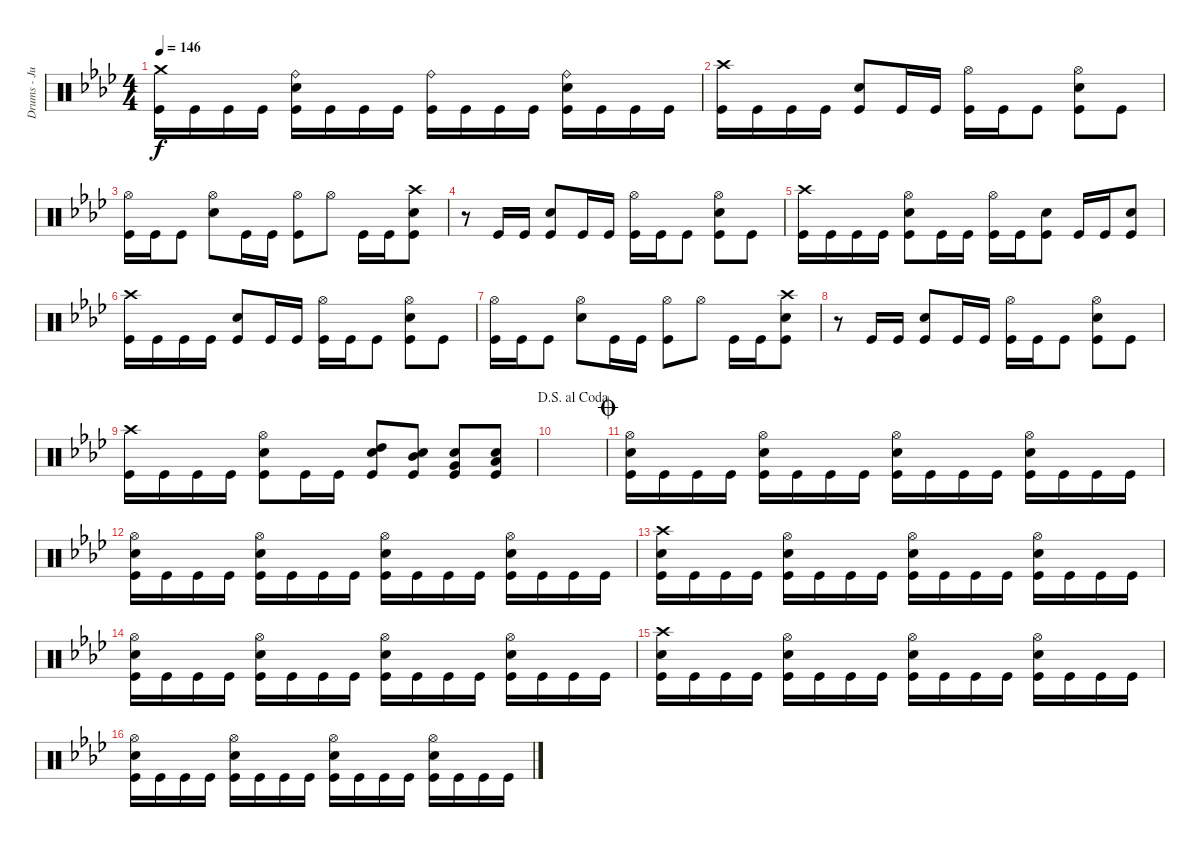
\track ("Drums - Jukka" "Drums - Ju") {instrument percussion}
\staff {score}
\articulation defaults
\ts (4 4)
\tempo 146
\clef neutral
\ks fminor
("Kick (hit)" "Crash medium (hit)").16{dy f} "Kick (hit)".16 "Kick (hit)".16 "Kick (hit)".16 ("Kick (hit)" "Snare (hit) 2" "Ride (bell)").16 "Kick (hit)".16 "Kick (hit)".16 "Kick (hit)".16 ("Kick (hit)" "Ride (bell)").16 "Kick (hit)".16 "Kick (hit)".16 "Kick (hit)".16 ("Kick (hit)" "Snare (hit) 2" "Ride (bell)").16 "Kick (hit)".16 "Kick (hit)".16 "Kick (hit)".16 |
("Kick (hit)" "Crash high (hit)").16 "Kick (hit)".16 "Kick (hit)".16 "Kick (hit)".16 ("Kick (hit)" "Snare (hit) 2").8 "Kick (hit)".16 "Kick (hit)".16 ("Kick (hit)" "Hi-Hat (open)").16 "Kick (hit)".16 "Kick (hit)".8 ("Kick (hit)" "Snare (hit) 2" "Hi-Hat (open)").8 "Kick (hit)".8 |
("Kick (hit)" "Hi-Hat (open)").16 "Kick (hit)".16 "Kick (hit)".8 ("Snare (hit) 2" "Hi-Hat (open)").8 "Kick (hit)".16 "Kick (hit)".16 ("Kick (hit)" "Hi-Hat (open)").8 "Hi-Hat (open)".8 "Kick (hit)".16 "Kick (hit)".16 ("Kick (hit)" "Crash high (hit)" "Snare (hit) 2").8 |
r.8 "Kick (hit)".16 "Kick (hit)".16 ("Kick (hit)" "Snare (hit) 2").8 "Kick (hit)".16 "Kick (hit)".16 ("Kick (hit)" "Hi-Hat (open)").16 "Kick (hit)".16 "Kick (hit)".8 ("Kick (hit)" "Snare (hit) 2" "Hi-Hat (open)").8 "Kick (hit)".8 |
("Kick (hit)" "Crash high (hit)").16 "Kick (hit)".16 "Kick (hit)".16 "Kick (hit)".16 ("Kick (hit)" "Snare (hit) 2" "Hi-Hat (open)").8 "Kick (hit)".16 "Kick (hit)".16 ("Kick (hit)" "Hi-Hat (open)").16 "Kick (hit)".16 ("Kick (hit)" "Snare (hit) 2").8 "Kick (hit)".16 "Kick (hit)".16 ("Kick (hit)" "Snare (hit) 2").8 |
("Kick (hit)" "Crash high (hit)").16 "Kick (hit)".16 "Kick (hit)".16 "Kick (hit)".16 ("Kick (hit)" "Snare (hit) 2").8 "Kick (hit)".16 "Kick (hit)".16 ("Kick (hit)" "Hi-Hat (open)").16 "Kick (hit)".16 "Kick (hit)".8 ("Kick (hit)" "Snare (hit) 2" "Hi-Hat (open)").8 "Kick (hit)".8 |
("Kick (hit)" "Hi-Hat (open)").16 "Kick (hit)".16 "Kick (hit)".8 ("Snare (hit) 2" "Hi-Hat (open)").8 "Kick (hit)".16 "Kick (hit)".16 ("Kick (hit)" "Hi-Hat (open)").8 "Hi-Hat (open)".8 "Kick (hit)".16 "Kick (hit)".16 ("Kick (hit)" "Crash high (hit)" "Snare (hit) 2").8 |
r.8 "Kick (hit)".16 "Kick (hit)".16 ("Kick (hit)" "Snare (hit) 2").8 "Kick (hit)".16 "Kick (hit)".16 ("Kick (hit)" "Hi-Hat (open)").16 "Kick (hit)".16 "Kick (hit)".8 ("Kick (hit)" "Snare (hit) 2" "Hi-Hat (open)").8 "Kick (hit)".8 |
("Kick (hit)" "Crash high (hit)").16 "Kick (hit)".16 "Kick (hit)".16 "Kick (hit)".16 ("Kick (hit)" "Snare (hit) 2" "Hi-Hat (open)").8 "Kick (hit)".16 "Kick (hit)".16 ("Kick (hit)" "Snare (hit) 2" "High Tom (hit)").8 ("Kick (hit)" "Snare (hit) 2" "Mid Tom (hit)").8 ("Kick (hit)" "Snare (hit) 2" "Very Low Tom (hit)").8 ("Kick (hit)" "Snare (hit) 2" "Low Floor Tom (hit)").8 |
\jump dalsegnoalcoda
|
\jump coda
("Kick (hit)" "Snare (hit) 2" "Hi-Hat (open)").16 "Kick (hit)".16 "Kick (hit)".16 "Kick (hit)".16 ("Kick (hit)" "Snare (hit) 2" "Hi-Hat (open)").16 "Kick (hit)".16 "Kick (hit)".16 "Kick (hit)".16 ("Kick (hit)" "Snare (hit) 2" "Hi-Hat (open)").16 "Kick (hit)".16 "Kick (hit)".16 "Kick (hit)".16 ("Kick (hit)" "Snare (hit) 2" "Hi-Hat (open)").16 "Kick (hit)".16 "Kick (hit)".16 "Kick (hit)".16 |
("Kick (hit)" "Snare (hit) 2" "Hi-Hat (open)").16 "Kick (hit)".16 "Kick (hit)".16 "Kick (hit)".16 ("Kick (hit)" "Snare (hit) 2" "Hi-Hat (open)").16 "Kick (hit)".16 "Kick (hit)".16 "Kick (hit)".16 ("Kick (hit)" "Snare (hit) 2" "Hi-Hat (open)").16 "Kick (hit)".16 "Kick (hit)".16 "Kick (hit)".16 ("Kick (hit)" "Snare (hit) 2" "Hi-Hat (open)").16 "Kick (hit)".16 "Kick (hit)".16 "Kick (hit)".16 |
("Kick (hit)" "Crash high (hit)" "Snare (hit) 2").16 "Kick (hit)".16 "Kick (hit)".16 "Kick (hit)".16 ("Kick (hit)" "Snare (hit) 2" "Hi-Hat (open)").16 "Kick (hit)".16 "Kick (hit)".16 "Kick (hit)".16 ("Kick (hit)" "Snare (hit) 2" "Hi-Hat (open)").16 "Kick (hit)".16 "Kick (hit)".16 "Kick (hit)".16 ("Kick (hit)" "Snare (hit) 2" "Hi-Hat (open)").16 "Kick (hit)".16 "Kick (hit)".16 "Kick (hit)".16 |
("Kick (hit)" "Hi-Hat (open)" "Snare (hit) 2").16 "Kick (hit)".16 "Kick (hit)".16 "Kick (hit)".16 ("Kick (hit)" "Hi-Hat (open)" "Snare (hit) 2").16 "Kick (hit)".16 "Kick (hit)".16 "Kick (hit)".16 ("Kick (hit)" "Hi-Hat (open)" "Snare (hit) 2").16 "Kick (hit)".16 "Kick (hit)".16 "Kick (hit)".16 ("Kick (hit)" "Hi-Hat (open)" "Snare (hit) 2").16 "Kick (hit)".16 "Kick (hit)".16 "Kick (hit)".16 |
("Kick (hit)" "Crash high (hit)" "Snare (hit) 2").16 "Kick (hit)".16 "Kick (hit)".16 "Kick (hit)".16 ("Kick (hit)" "Snare (hit) 2" "Hi-Hat (open)").16 "Kick (hit)".16 "Kick (hit)".16 "Kick (hit)".16 ("Kick (hit)" "Snare (hit) 2" "Hi-Hat (open)").16 "Kick (hit)".16 "Kick (hit)".16 "Kick (hit)".16 ("Kick (hit)" "Snare (hit) 2" "Hi-Hat (open)").16 "Kick (hit)".16 "Kick (hit)".16 "Kick (hit)".16 |
("Kick (hit)" "Hi-Hat (open)" "Snare (hit) 2").16 "Kick (hit)".16 "Kick (hit)".16 "Kick (hit)".16 ("Kick (hit)" "Hi-Hat (open)" "Snare (hit) 2").16 "Kick (hit)".16 "Kick (hit)".16 "Kick (hit)".16 ("Kick (hit)" "Hi-Hat (open)" "Snare (hit) 2").16 "Kick (hit)".16 "Kick (hit)".16 "Kick (hit)".16 ("Kick (hit)" "Hi-Hat (open)" "Snare (hit) 2").16 "Kick (hit)".16 "Kick (hit)".16 "Kick (hit)".16
